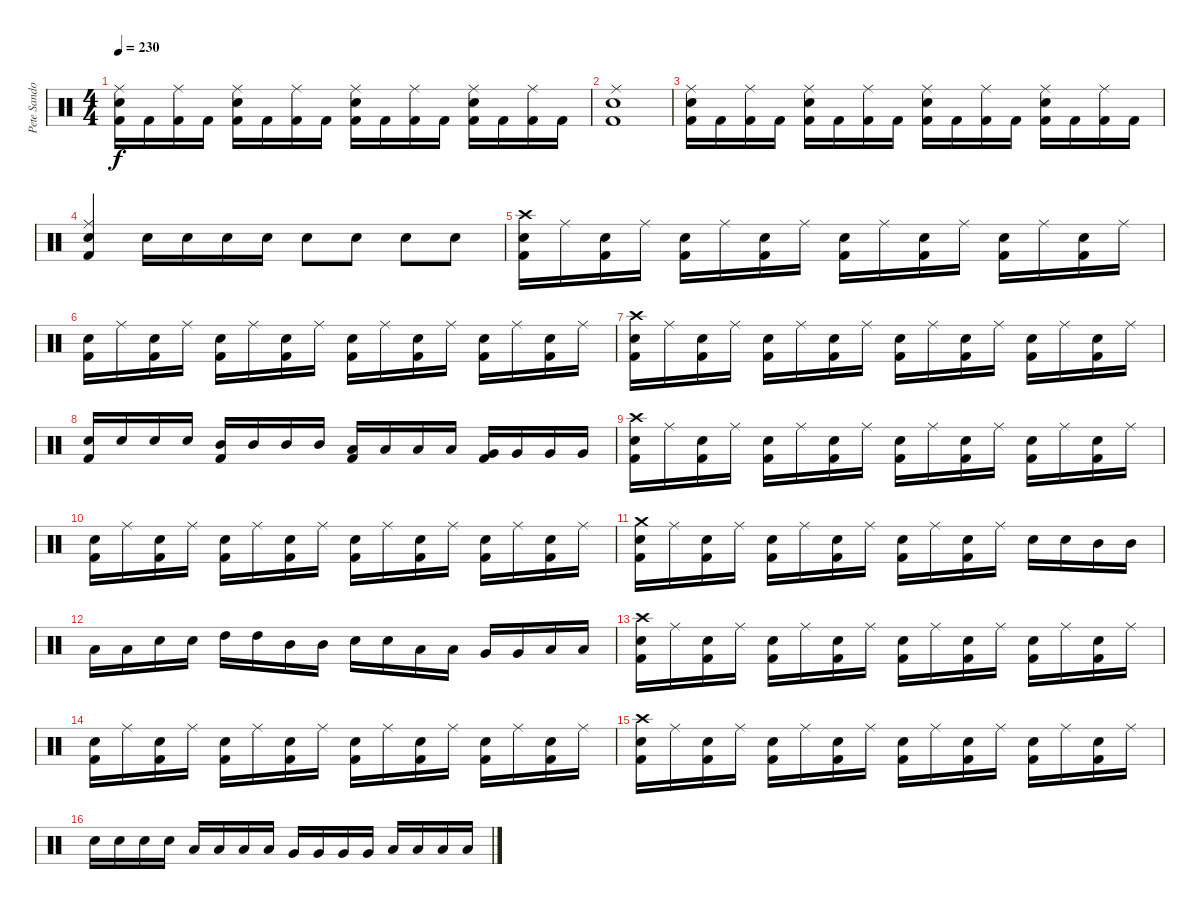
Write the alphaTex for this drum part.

\track ("Pete Sandoval" "Pete Sando") {instrument percussion}
\staff {score}
\articulation defaults
\ts (4 4)
\tempo 230
\clef neutral
\ks c
("Electric Snare (hit)" "Ride (middle)" "Kick (hit) 2").16{dy f} "Kick (hit) 2".16 ("Ride (middle)" "Kick (hit) 2").16 "Kick (hit) 2".16 ("Electric Snare (hit)" "Ride (middle)" "Kick (hit) 2").16 "Kick (hit) 2".16 ("Ride (middle)" "Kick (hit) 2").16 "Kick (hit) 2".16 ("Electric Snare (hit)" "Ride (middle)" "Kick (hit) 2").16 "Kick (hit) 2".16 ("Ride (middle)" "Kick (hit) 2").16 "Kick (hit) 2".16 ("Electric Snare (hit)" "Ride (middle)" "Kick (hit) 2").16 "Kick (hit) 2".16 ("Ride (middle)" "Kick (hit) 2").16 "Kick (hit) 2".16 |
("Electric Snare (hit)" "Ride (middle)" "Kick (hit) 2").1 |
("Electric Snare (hit)" "Ride (middle)" "Kick (hit) 2").16 "Kick (hit) 2".16 ("Ride (middle)" "Kick (hit) 2").16 "Kick (hit) 2".16 ("Electric Snare (hit)" "Ride (middle)" "Kick (hit) 2").16 "Kick (hit) 2".16 ("Ride (middle)" "Kick (hit) 2").16 "Kick (hit) 2".16 ("Electric Snare (hit)" "Ride (middle)" "Kick (hit) 2").16 "Kick (hit) 2".16 ("Ride (middle)" "Kick (hit) 2").16 "Kick (hit) 2".16 ("Electric Snare (hit)" "Ride (middle)" "Kick (hit) 2").16 "Kick (hit) 2".16 ("Ride (middle)" "Kick (hit) 2").16 "Kick (hit) 2".16 |
("Electric Snare (hit)" "Ride (middle)" "Kick (hit) 2").4 "Electric Snare (hit)".16 "Electric Snare (hit)".16 "Electric Snare (hit)".16 "Electric Snare (hit)".16 "Electric Snare (hit)".8 "Electric Snare (hit)".8 "Electric Snare (hit)".8 "Electric Snare (hit)".8 |
("Crash high (hit)" "Kick (hit) 2" "Electric Snare (hit)").16 "Ride (middle)".16 ("Kick (hit) 2" "Electric Snare (hit)").16 "Ride (middle)".16 ("Kick (hit) 2" "Electric Snare (hit)").16 "Ride (middle)".16 ("Kick (hit) 2" "Electric Snare (hit)").16 "Ride (middle)".16 ("Kick (hit) 2" "Electric Snare (hit)").16 "Ride (middle)".16 ("Kick (hit) 2" "Electric Snare (hit)").16 "Ride (middle)".16 ("Kick (hit) 2" "Electric Snare (hit)").16 "Ride (middle)".16 ("Kick (hit) 2" "Electric Snare (hit)").16 "Ride (middle)".16 |
("Kick (hit) 2" "Electric Snare (hit)").16 "Ride (middle)".16 ("Kick (hit) 2" "Electric Snare (hit)").16 "Ride (middle)".16 ("Kick (hit) 2" "Electric Snare (hit)").16 "Ride (middle)".16 ("Kick (hit) 2" "Electric Snare (hit)").16 "Ride (middle)".16 ("Kick (hit) 2" "Electric Snare (hit)").16 "Ride (middle)".16 ("Kick (hit) 2" "Electric Snare (hit)").16 "Ride (middle)".16 ("Kick (hit) 2" "Electric Snare (hit)").16 "Ride (middle)".16 ("Kick (hit) 2" "Electric Snare (hit)").16 "Ride (middle)".16 |
("Crash high (hit)" "Kick (hit) 2" "Electric Snare (hit)").16 "Ride (middle)".16 ("Kick (hit) 2" "Electric Snare (hit)").16 "Ride (middle)".16 ("Kick (hit) 2" "Electric Snare (hit)").16 "Ride (middle)".16 ("Kick (hit) 2" "Electric Snare (hit)").16 "Ride (middle)".16 ("Kick (hit) 2" "Electric Snare (hit)").16 "Ride (middle)".16 ("Kick (hit) 2" "Electric Snare (hit)").16 "Ride (middle)".16 ("Kick (hit) 2" "Electric Snare (hit)").16 "Ride (middle)".16 ("Kick (hit) 2" "Electric Snare (hit)").16 "Ride (middle)".16 |
("Kick (hit) 2" "Electric Snare (hit)").16 "Electric Snare (hit)".16 "Electric Snare (hit)".16 "Electric Snare (hit)".16 ("Kick (hit) 2" "Mid Tom (hit)").16 "Mid Tom (hit)".16 "Mid Tom (hit)".16 "Mid Tom (hit)".16 ("Kick (hit) 2" "Low Tom (hit)").16 "Low Tom (hit)".16 "Low Tom (hit)".16 "Low Tom (hit)".16 ("Kick (hit) 2" "Very Low Tom (hit)").16 "Very Low Tom (hit)".16 "Very Low Tom (hit)".16 "Very Low Tom (hit)".16 |
("Crash high (hit)" "Kick (hit) 2" "Electric Snare (hit)").16 "Ride (middle)".16 ("Kick (hit) 2" "Electric Snare (hit)").16 "Ride (middle)".16 ("Kick (hit) 2" "Electric Snare (hit)").16 "Ride (middle)".16 ("Kick (hit) 2" "Electric Snare (hit)").16 "Ride (middle)".16 ("Kick (hit) 2" "Electric Snare (hit)").16 "Ride (middle)".16 ("Kick (hit) 2" "Electric Snare (hit)").16 "Ride (middle)".16 ("Kick (hit) 2" "Electric Snare (hit)").16 "Ride (middle)".16 ("Kick (hit) 2" "Electric Snare (hit)").16 "Ride (middle)".16 |
("Kick (hit) 2" "Electric Snare (hit)").16 "Ride (middle)".16 ("Kick (hit) 2" "Electric Snare (hit)").16 "Ride (middle)".16 ("Kick (hit) 2" "Electric Snare (hit)").16 "Ride (middle)".16 ("Kick (hit) 2" "Electric Snare (hit)").16 "Ride (middle)".16 ("Kick (hit) 2" "Electric Snare (hit)").16 "Ride (middle)".16 ("Kick (hit) 2" "Electric Snare (hit)").16 "Ride (middle)".16 ("Kick (hit) 2" "Electric Snare (hit)").16 "Ride (middle)".16 ("Kick (hit) 2" "Electric Snare (hit)").16 "Ride (middle)".16 |
("Crash medium (hit)" "Kick (hit) 2" "Electric Snare (hit)").16 "Ride (middle)".16 ("Kick (hit) 2" "Electric Snare (hit)").16 "Ride (middle)".16 ("Kick (hit) 2" "Electric Snare (hit)").16 "Ride (middle)".16 ("Kick (hit) 2" "Electric Snare (hit)").16 "Ride (middle)".16 ("Kick (hit) 2" "Electric Snare (hit)").16 "Ride (middle)".16 ("Kick (hit) 2" "Electric Snare (hit)").16 "Ride (middle)".16 "Electric Snare (hit)".16 "Electric Snare (hit)".16 "Mid Tom (hit)".16 "Mid Tom (hit)".16 |
"Low Tom (hit)".16 "Low Tom (hit)".16 "Electric Snare (hit)".16 "Electric Snare (hit)".16 "High Tom (hit)".16 "High Tom (hit)".16 "Mid Tom (hit)".16 "Mid Tom (hit)".16 "Electric Snare (hit)".16 "Electric Snare (hit)".16 "Low Tom (hit)".16 "Low Tom (hit)".16 "Very Low Tom (hit)".16 "Very Low Tom (hit)".16 "Low Floor Tom (hit)".16 "Low Floor Tom (hit)".16 |
("Crash high (hit)" "Kick (hit) 2" "Electric Snare (hit)").16 "Ride (middle)".16 ("Kick (hit) 2" "Electric Snare (hit)").16 "Ride (middle)".16 ("Kick (hit) 2" "Electric Snare (hit)").16 "Ride (middle)".16 ("Kick (hit) 2" "Electric Snare (hit)").16 "Ride (middle)".16 ("Kick (hit) 2" "Electric Snare (hit)").16 "Ride (middle)".16 ("Kick (hit) 2" "Electric Snare (hit)").16 "Ride (middle)".16 ("Kick (hit) 2" "Electric Snare (hit)").16 "Ride (middle)".16 ("Kick (hit) 2" "Electric Snare (hit)").16 "Ride (middle)".16 |
("Kick (hit) 2" "Electric Snare (hit)").16 "Ride (middle)".16 ("Kick (hit) 2" "Electric Snare (hit)").16 "Ride (middle)".16 ("Kick (hit) 2" "Electric Snare (hit)").16 "Ride (middle)".16 ("Kick (hit) 2" "Electric Snare (hit)").16 "Ride (middle)".16 ("Kick (hit) 2" "Electric Snare (hit)").16 "Ride (middle)".16 ("Kick (hit) 2" "Electric Snare (hit)").16 "Ride (middle)".16 ("Kick (hit) 2" "Electric Snare (hit)").16 "Ride (middle)".16 ("Kick (hit) 2" "Electric Snare (hit)").16 "Ride (middle)".16 |
("Crash high (hit)" "Kick (hit) 2" "Electric Snare (hit)").16 "Ride (middle)".16 ("Kick (hit) 2" "Electric Snare (hit)").16 "Ride (middle)".16 ("Kick (hit) 2" "Electric Snare (hit)").16 "Ride (middle)".16 ("Kick (hit) 2" "Electric Snare (hit)").16 "Ride (middle)".16 ("Kick (hit) 2" "Electric Snare (hit)").16 "Ride (middle)".16 ("Kick (hit) 2" "Electric Snare (hit)").16 "Ride (middle)".16 ("Kick (hit) 2" "Electric Snare (hit)").16 "Ride (middle)".16 ("Kick (hit) 2" "Electric Snare (hit)").16 "Ride (middle)".16 |
"Electric Snare (hit)".16 "Electric Snare (hit)".16 "Electric Snare (hit)".16 "Electric Snare (hit)".16 "Low Tom (hit)".16 "Low Tom (hit)".16 "Low Tom (hit)".16 "Low Tom (hit)".16 "Very Low Tom (hit)".16 "Very Low Tom (hit)".16 "Very Low Tom (hit)".16 "Very Low Tom (hit)".16 "Low Floor Tom (hit)".16 "Low Floor Tom (hit)".16 "Low Floor Tom (hit)".16 "Low Floor Tom (hit)".16
